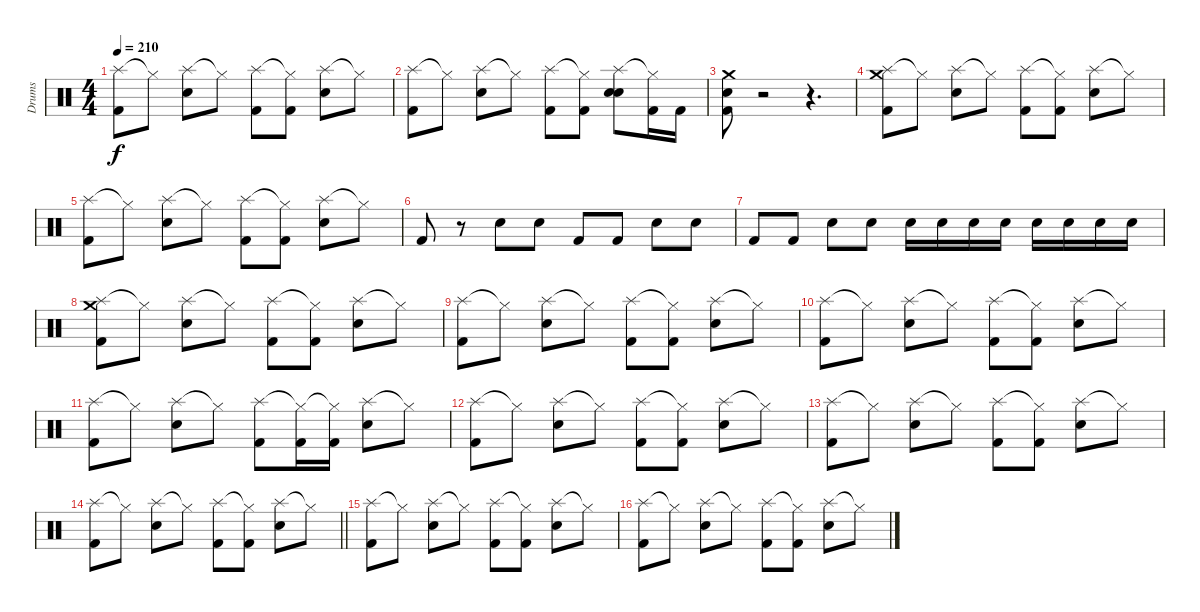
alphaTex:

\track ("Drums" "Drums") {instrument percussion}
\staff {score}
\articulation defaults
\ts (4 4)
\tempo 210
\clef neutral
\ks c
("Splash (hit)" "Kick (hit) 2").8{dy f} "Hi-Hat (closed)"{t}.8 ("Splash (hit)" "Electric Snare (hit)").8 "Hi-Hat (closed)"{t}.8 ("Splash (hit)" "Kick (hit) 2").8 ("Hi-Hat (closed)"{t} "Kick (hit) 2").8 ("Splash (hit)" "Electric Snare (hit)").8 "Hi-Hat (closed)"{t}.8 |
("Splash (hit)" "Kick (hit) 2").8 "Hi-Hat (closed)"{t}.8 ("Splash (hit)" "Electric Snare (hit)").8 "Hi-Hat (closed)"{t}.8 ("Splash (hit)" "Kick (hit) 2").8 ("Hi-Hat (closed)"{t} "Kick (hit) 2").8 ("Splash (hit)" "Electric Snare (hit)" "Electric Snare (hit)").8 ("Hi-Hat (closed)"{t} "Kick (hit) 2").16 "Kick (hit) 2".16 |
("Crash medium (hit)" "Electric Snare (hit)" "Kick (hit) 2").8 r.2 r.4{d} |
("Splash (hit)" "Crash medium (hit)" "Kick (hit) 2").8 "Hi-Hat (closed)"{t}.8 ("Splash (hit)" "Electric Snare (hit)").8 "Hi-Hat (closed)"{t}.8 ("Splash (hit)" "Kick (hit) 2").8 ("Hi-Hat (closed)"{t} "Kick (hit) 2").8 ("Splash (hit)" "Electric Snare (hit)").8 "Hi-Hat (closed)"{t}.8 |
("Splash (hit)" "Kick (hit) 2").8 "Hi-Hat (closed)"{t}.8 ("Splash (hit)" "Electric Snare (hit)").8 "Hi-Hat (closed)"{t}.8 ("Splash (hit)" "Kick (hit) 2").8 ("Hi-Hat (closed)"{t} "Kick (hit) 2").8 ("Splash (hit)" "Electric Snare (hit)").8 "Hi-Hat (closed)"{t}.8 |
"Kick (hit) 2".8 r.8 "Electric Snare (hit)".8 "Electric Snare (hit)".8 "Kick (hit) 2".8 "Kick (hit) 2".8 "Electric Snare (hit)".8 "Electric Snare (hit)".8 |
"Kick (hit) 2".8 "Kick (hit) 2".8 "Electric Snare (hit)".8 "Electric Snare (hit)".8 "Electric Snare (hit)".16 "Electric Snare (hit)".16 "Electric Snare (hit)".16 "Electric Snare (hit)".16 "Electric Snare (hit)".16 "Electric Snare (hit)".16 "Electric Snare (hit)".16 "Electric Snare (hit)".16 |
("Splash (hit)" "Crash medium (hit)" "Kick (hit) 2").8 "Hi-Hat (closed)"{t}.8 ("Splash (hit)" "Electric Snare (hit)").8 "Hi-Hat (closed)"{t}.8 ("Splash (hit)" "Kick (hit) 2").8 ("Hi-Hat (closed)"{t} "Kick (hit) 2").8 ("Splash (hit)" "Electric Snare (hit)").8 "Hi-Hat (closed)"{t}.8 |
("Splash (hit)" "Kick (hit) 2").8 "Hi-Hat (closed)"{t}.8 ("Splash (hit)" "Electric Snare (hit)").8 "Hi-Hat (closed)"{t}.8 ("Splash (hit)" "Kick (hit) 2").8 ("Hi-Hat (closed)"{t} "Kick (hit) 2").8 ("Splash (hit)" "Electric Snare (hit)").8 "Hi-Hat (closed)"{t}.8 |
("Splash (hit)" "Kick (hit) 2").8 "Hi-Hat (closed)"{t}.8 ("Splash (hit)" "Electric Snare (hit)").8 "Hi-Hat (closed)"{t}.8 ("Splash (hit)" "Kick (hit) 2").8 ("Hi-Hat (closed)"{t} "Kick (hit) 2").8 ("Splash (hit)" "Electric Snare (hit)").8 "Hi-Hat (closed)"{t}.8 |
("Splash (hit)" "Kick (hit) 2").8 "Hi-Hat (closed)"{t}.8 ("Splash (hit)" "Electric Snare (hit)").8 "Hi-Hat (closed)"{t}.8 ("Splash (hit)" "Kick (hit) 2").8 ("Hi-Hat (closed)"{t} "Kick (hit) 2").16 ("Hi-Hat (closed)"{t} "Kick (hit) 2").16 ("Splash (hit)" "Electric Snare (hit)").8 "Hi-Hat (closed)"{t}.8 |
("Splash (hit)" "Kick (hit) 2").8 "Hi-Hat (closed)"{t}.8 ("Splash (hit)" "Electric Snare (hit)").8 "Hi-Hat (closed)"{t}.8 ("Splash (hit)" "Kick (hit) 2").8 ("Hi-Hat (closed)"{t} "Kick (hit) 2").8 ("Splash (hit)" "Electric Snare (hit)").8 "Hi-Hat (closed)"{t}.8 |
("Splash (hit)" "Kick (hit) 2").8 "Hi-Hat (closed)"{t}.8 ("Splash (hit)" "Electric Snare (hit)").8 "Hi-Hat (closed)"{t}.8 ("Splash (hit)" "Kick (hit) 2").8 ("Hi-Hat (closed)"{t} "Kick (hit) 2").8 ("Splash (hit)" "Electric Snare (hit)").8 "Hi-Hat (closed)"{t}.8 |
\barLineRight lightlight
("Splash (hit)" "Kick (hit) 2").8 "Hi-Hat (closed)"{t}.8 ("Splash (hit)" "Electric Snare (hit)").8 "Hi-Hat (closed)"{t}.8 ("Splash (hit)" "Kick (hit) 2").8 ("Hi-Hat (closed)"{t} "Kick (hit) 2").8 ("Splash (hit)" "Electric Snare (hit)").8 "Hi-Hat (closed)"{t}.8 |
("Splash (hit)" "Kick (hit) 2").8 "Hi-Hat (closed)"{t}.8 ("Splash (hit)" "Electric Snare (hit)").8 "Hi-Hat (closed)"{t}.8 ("Splash (hit)" "Kick (hit) 2").8 ("Hi-Hat (closed)"{t} "Kick (hit) 2").8 ("Splash (hit)" "Electric Snare (hit)").8 "Hi-Hat (closed)"{t}.8 |
("Splash (hit)" "Kick (hit) 2").8 "Hi-Hat (closed)"{t}.8 ("Splash (hit)" "Electric Snare (hit)").8 "Hi-Hat (closed)"{t}.8 ("Splash (hit)" "Kick (hit) 2").8 ("Hi-Hat (closed)"{t} "Kick (hit) 2").8 ("Splash (hit)" "Electric Snare (hit)").8 "Hi-Hat (closed)"{t}.8
